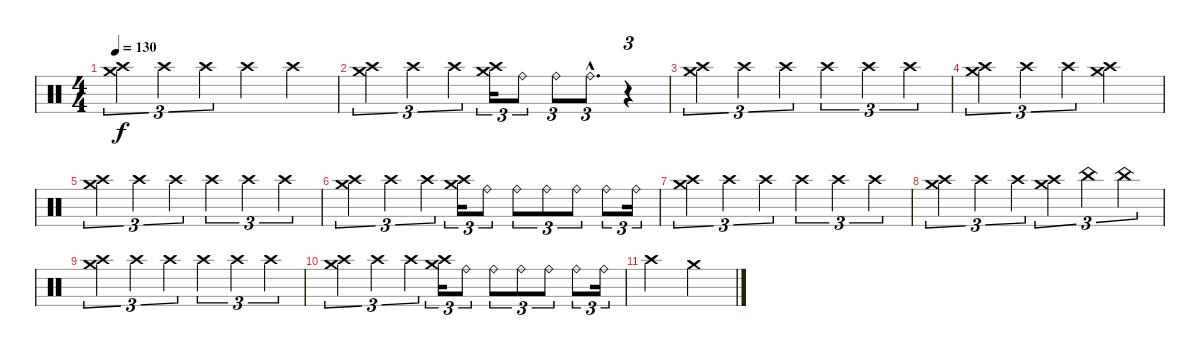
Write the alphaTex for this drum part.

\track "" {instrument percussion}
\staff {score}
\articulation defaults
\ts (4 4)
\tempo 130
\clef neutral
\ks c
("Crash medium (hit)" "Crash high (hit)").4{tu (3 2) dy f} "Crash high (hit)".4{tu (3 2)} "Crash high (hit)".4{tu (3 2)} "Crash high (hit)".4 "Crash high (hit)".4 |
("Crash medium (hit)" "Crash high (hit)").4{tu (3 2)} "Crash high (hit)".4{tu (3 2)} "Crash high (hit)".4{tu (3 2)} ("Crash medium (hit)" "Crash high (hit)").16{tu (3 2)} "Ride (bell)".8{tu (3 2)} "Ride (bell)".8{tu (3 2)} "Ride (bell)"{hac}.8{d tu (3 2)} r.4{tu (3 2)} |
("Crash medium (hit)" "Crash high (hit)").4{tu (3 2)} "Crash high (hit)".4{tu (3 2)} "Crash high (hit)".4{tu (3 2)} "Crash high (hit)".4{tu (3 2)} "Crash high (hit)".4{tu (3 2)} "Crash high (hit)".4{tu (3 2)} |
("Crash medium (hit)" "Crash high (hit)").4{tu (3 2)} "Crash high (hit)".4{tu (3 2)} "Crash high (hit)".4{tu (3 2)} ("Crash medium (hit)" "Crash high (hit)").2 |
("Crash medium (hit)" "Crash high (hit)").4{tu (3 2)} "Crash high (hit)".4{tu (3 2)} "Crash high (hit)".4{tu (3 2)} "Crash high (hit)".4{tu (3 2)} "Crash high (hit)".4{tu (3 2)} "Crash high (hit)".4{tu (3 2)} |
("Crash medium (hit)" "Crash high (hit)").4{tu (3 2)} "Crash high (hit)".4{tu (3 2)} "Crash high (hit)".4{tu (3 2)} ("Crash medium (hit)" "Crash high (hit)").16{tu (3 2)} "Ride (bell)".8{tu (3 2)} "Ride (bell)".8{tu (3 2)} "Ride (bell)".8{tu (3 2)} "Ride (bell)".8{tu (3 2)} "Ride (bell)".8{tu (3 2)} "Ride (bell)".16{tu (3 2)} |
("Crash medium (hit)" "Crash high (hit)").4{tu (3 2)} "Crash high (hit)".4{tu (3 2)} "Crash high (hit)".4{tu (3 2)} "Crash high (hit)".4{tu (3 2)} "Crash high (hit)".4{tu (3 2)} "Crash high (hit)".4{tu (3 2)} |
("Crash medium (hit)" "Crash high (hit)").4{tu (3 2)} "Crash high (hit)".4{tu (3 2)} "Crash high (hit)".4{tu (3 2)} ("Crash medium (hit)" "Crash high (hit)").4{tu (3 2)} "China (hit)".4{tu (3 2)} "China (hit)".4{tu (3 2)} |
("Crash medium (hit)" "Crash high (hit)").4{tu (3 2)} "Crash high (hit)".4{tu (3 2)} "Crash high (hit)".4{tu (3 2)} "Crash high (hit)".4{tu (3 2)} "Crash high (hit)".4{tu (3 2)} "Crash high (hit)".4{tu (3 2)} |
("Crash medium (hit)" "Crash high (hit)").4{tu (3 2)} "Crash high (hit)".4{tu (3 2)} "Crash high (hit)".4{tu (3 2)} ("Crash medium (hit)" "Crash high (hit)").16{tu (3 2)} "Ride (bell)".8{tu (3 2)} "Ride (bell)".8{tu (3 2)} "Ride (bell)".8{tu (3 2)} "Ride (bell)".8{tu (3 2)} "Ride (bell)".8{tu (3 2)} "Ride (bell)".16{tu (3 2)} |
"Crash high (hit)".2 "Crash medium (hit)".2
